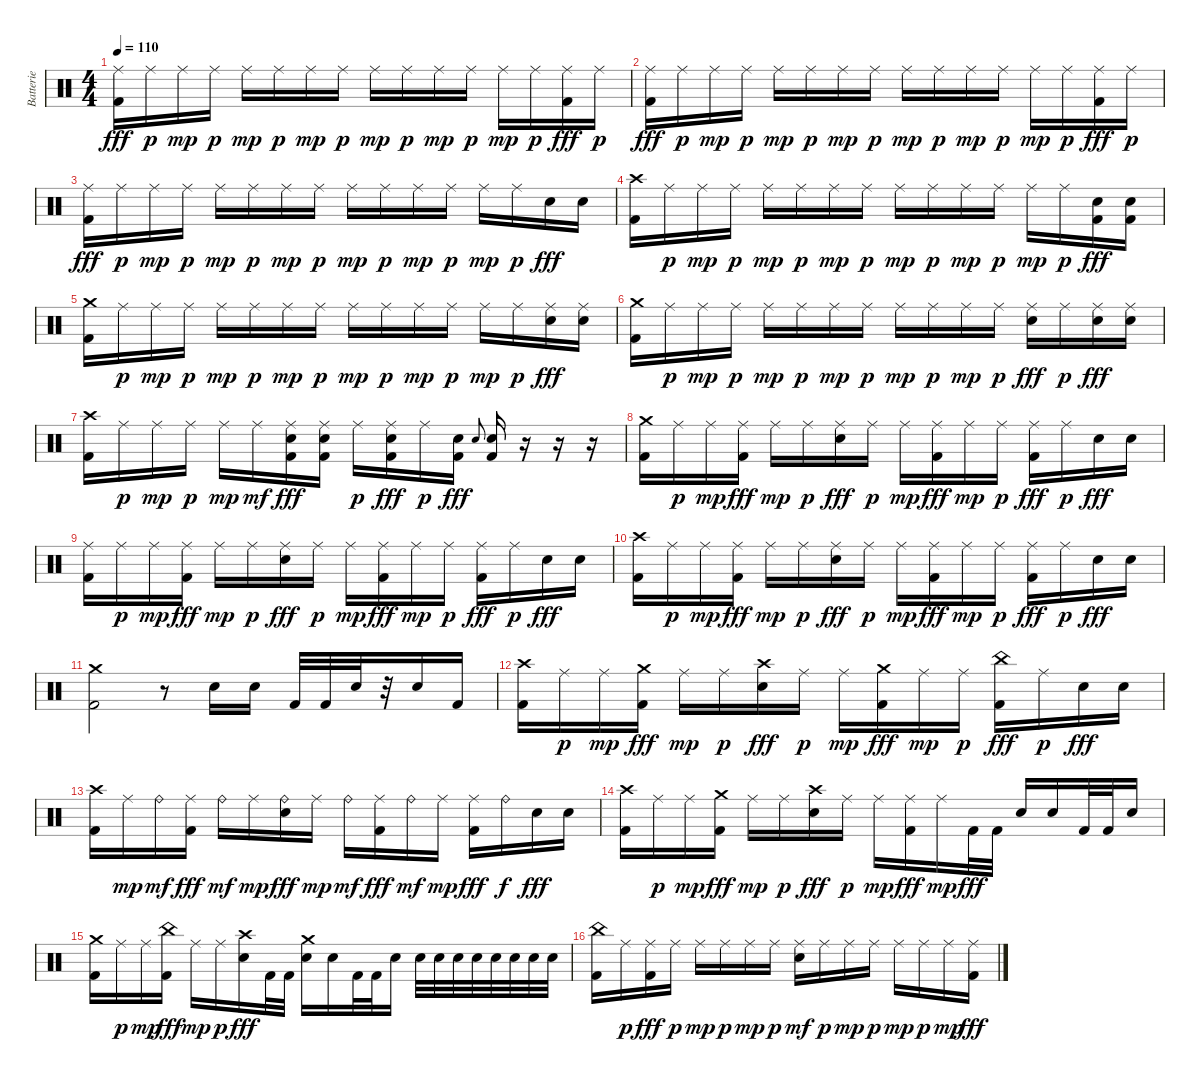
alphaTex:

\track ("Batterie" "Batterie") {instrument percussion}
\staff {score}
\articulation defaults
\ts (4 4)
\tempo 110
\clef neutral
\ks c
("Ride (middle)" "Kick (hit) 2").16{dy fff} "Ride (middle)".16{dy p} "Ride (middle)".16{dy mp} "Ride (middle)".16{dy p} "Ride (middle)".16{dy mp} "Ride (middle)".16{dy p} "Ride (middle)".16{dy mp} "Ride (middle)".16{dy p} "Ride (middle)".16{dy mp} "Ride (middle)".16{dy p} "Ride (middle)".16{dy mp} "Ride (middle)".16{dy p} "Ride (middle)".16{dy mp} "Ride (middle)".16{dy p} ("Ride (middle)" "Kick (hit) 2").16{dy fff} "Ride (middle)".16{dy p} |
("Ride (middle)" "Kick (hit) 2").16{dy fff} "Ride (middle)".16{dy p} "Ride (middle)".16{dy mp} "Ride (middle)".16{dy p} "Ride (middle)".16{dy mp} "Ride (middle)".16{dy p} "Ride (middle)".16{dy mp} "Ride (middle)".16{dy p} "Ride (middle)".16{dy mp} "Ride (middle)".16{dy p} "Ride (middle)".16{dy mp} "Ride (middle)".16{dy p} "Ride (middle)".16{dy mp} "Ride (middle)".16{dy p} ("Ride (middle)" "Kick (hit) 2").16{dy fff} "Ride (middle)".16{dy p} |
("Ride (middle)" "Kick (hit) 2").16{dy fff} "Ride (middle)".16{dy p} "Ride (middle)".16{dy mp} "Ride (middle)".16{dy p} "Ride (middle)".16{dy mp} "Ride (middle)".16{dy p} "Ride (middle)".16{dy mp} "Ride (middle)".16{dy p} "Ride (middle)".16{dy mp} "Ride (middle)".16{dy p} "Ride (middle)".16{dy mp} "Ride (middle)".16{dy p} "Ride (middle)".16{dy mp} "Ride (middle)".16{dy p} "Electric Snare (hit)".16{dy fff} "Electric Snare (hit)".16 |
("Crash high (hit)" "Kick (hit) 2").16 "Ride (middle)".16{dy p} "Ride (middle)".16{dy mp} "Ride (middle)".16{dy p} "Ride (middle)".16{dy mp} "Ride (middle)".16{dy p} "Ride (middle)".16{dy mp} "Ride (middle)".16{dy p} "Ride (middle)".16{dy mp} "Ride (middle)".16{dy p} "Ride (middle)".16{dy mp} "Ride (middle)".16{dy p} "Ride (middle)".16{dy mp} "Ride (middle)".16{dy p} ("Electric Snare (hit)" "Kick (hit) 2").16{dy fff} ("Electric Snare (hit)" "Kick (hit) 2").16 |
("Crash medium (hit)" "Kick (hit) 2").16 "Ride (middle)".16{dy p} "Ride (middle)".16{dy mp} "Ride (middle)".16{dy p} "Ride (middle)".16{dy mp} "Ride (middle)".16{dy p} "Ride (middle)".16{dy mp} "Ride (middle)".16{dy p} "Ride (middle)".16{dy mp} "Ride (middle)".16{dy p} "Ride (middle)".16{dy mp} "Ride (middle)".16{dy p} "Ride (middle)".16{dy mp} "Ride (middle)".16{dy p} ("Ride (middle)" "Electric Snare (hit)").16{dy fff} ("Ride (middle)" "Electric Snare (hit)").16 |
("Crash medium (hit)" "Kick (hit) 2").16 "Ride (middle)".16{dy p} "Ride (middle)".16{dy mp} "Ride (middle)".16{dy p} "Ride (middle)".16{dy mp} "Ride (middle)".16{dy p} "Ride (middle)".16{dy mp} "Ride (middle)".16{dy p} "Ride (middle)".16{dy mp} "Ride (middle)".16{dy p} "Ride (middle)".16{dy mp} "Ride (middle)".16{dy p} ("Ride (middle)" "Electric Snare (hit)").16{dy fff} "Ride (middle)".16{dy p} ("Ride (middle)" "Electric Snare (hit)").16{dy fff} ("Ride (middle)" "Electric Snare (hit)").16 |
("Crash high (hit)" "Kick (hit) 2").16 "Ride (middle)".16{dy p} "Ride (middle)".16{dy mp} "Ride (middle)".16{dy p} "Ride (middle)".16{dy mp} "Ride (middle)".16{dy mf} ("Ride (middle)" "Electric Snare (hit)" "Kick (hit) 2").16{dy fff} ("Ride (middle)" "Electric Snare (hit)" "Kick (hit) 2").16 "Ride (middle)".16{dy p} ("Ride (middle)" "Electric Snare (hit)" "Kick (hit) 2").16{dy fff} "Ride (middle)".16{dy p} ("Electric Snare (hit)" "Kick (hit) 2").16{dy fff} "Electric Snare (hit)".8{gr onbeat} ("Electric Snare (hit)" "Kick (hit) 2").16 r.16 r.16 r.16 |
("Crash medium (hit)" "Kick (hit) 2").16 "Ride (middle)".16{dy p} "Ride (middle)".16{dy mp} ("Ride (middle)" "Kick (hit) 2").16{dy fff} "Ride (middle)".16{dy mp} "Ride (middle)".16{dy p} ("Ride (middle)" "Electric Snare (hit)").16{dy fff} "Ride (middle)".16{dy p} "Ride (middle)".16{dy mp} ("Ride (middle)" "Kick (hit) 2").16{dy fff} "Ride (middle)".16{dy mp} "Ride (middle)".16{dy p} ("Ride (middle)" "Kick (hit) 2").16{dy fff} "Ride (middle)".16{dy p} "Electric Snare (hit)".16{dy fff} "Electric Snare (hit)".16 |
("Ride (middle)" "Kick (hit) 2").16 "Ride (middle)".16{dy p} "Ride (middle)".16{dy mp} ("Ride (middle)" "Kick (hit) 2").16{dy fff} "Ride (middle)".16{dy mp} "Ride (middle)".16{dy p} ("Ride (middle)" "Electric Snare (hit)").16{dy fff} "Ride (middle)".16{dy p} "Ride (middle)".16{dy mp} ("Ride (middle)" "Kick (hit) 2").16{dy fff} "Ride (middle)".16{dy mp} "Ride (middle)".16{dy p} ("Ride (middle)" "Kick (hit) 2").16{dy fff} "Ride (middle)".16{dy p} "Electric Snare (hit)".16{dy fff} "Electric Snare (hit)".16 |
("Crash high (hit)" "Kick (hit) 2").16 "Ride (middle)".16{dy p} "Ride (middle)".16{dy mp} ("Ride (middle)" "Kick (hit) 2").16{dy fff} "Ride (middle)".16{dy mp} "Ride (middle)".16{dy p} ("Ride (middle)" "Electric Snare (hit)").16{dy fff} "Ride (middle)".16{dy p} "Ride (middle)".16{dy mp} ("Ride (middle)" "Kick (hit) 2").16{dy fff} "Ride (middle)".16{dy mp} "Ride (middle)".16{dy p} ("Ride (middle)" "Kick (hit) 2").16{dy fff} "Ride (middle)".16{dy p} "Electric Snare (hit)".16{dy fff} "Electric Snare (hit)".16 |
("Crash medium (hit)" "Kick (hit) 2").2 r.8 "Electric Snare (hit)".16 "Electric Snare (hit)".16 "Kick (hit) 2".32 "Kick (hit) 2".32 "Electric Snare (hit)".32 r.32 "Electric Snare (hit)".16 "Kick (hit) 2".16 |
("Crash high (hit)" "Kick (hit) 2").16 "Ride (middle)".16{dy p} "Ride (middle)".16{dy mp} ("Crash medium (hit)" "Kick (hit) 2").16{dy fff} "Ride (middle)".16{dy mp} "Ride (middle)".16{dy p} ("Crash high (hit)" "Electric Snare (hit)").16{dy fff} "Ride (middle)".16{dy p} "Ride (middle)".16{dy mp} ("Crash medium (hit)" "Kick (hit) 2").16{dy fff} "Ride (middle)".16{dy mp} "Ride (middle)".16{dy p} ("China (hit)" "Kick (hit) 2").16{dy fff} "Ride (middle)".16{dy p} "Electric Snare (hit)".16{dy fff} "Electric Snare (hit)".16 |
("Crash high (hit)" "Kick (hit) 2").16 "Ride (middle)".16{dy mp} "Ride (bell)".16{dy mf} ("Ride (middle)" "Kick (hit) 2").16{dy fff} "Ride (bell)".16{dy mf} "Ride (middle)".16{dy mp} ("Ride (bell)" "Electric Snare (hit)").16{dy fff} "Ride (middle)".16{dy mp} "Ride (bell)".16{dy mf} ("Ride (middle)" "Kick (hit) 2").16{dy fff} "Ride (bell)".16{dy mf} "Ride (middle)".16{dy mp} ("Ride (middle)" "Kick (hit) 2").16{dy fff} "Ride (bell)".16{dy f} "Electric Snare (hit)".16{dy fff} "Electric Snare (hit)".16 |
("Crash high (hit)" "Kick (hit) 2").16 "Ride (middle)".16{dy p} "Ride (middle)".16{dy mp} ("Crash medium (hit)" "Kick (hit) 2").16{dy fff} "Ride (middle)".16{dy mp} "Ride (middle)".16{dy p} ("Crash high (hit)" "Electric Snare (hit)").16{dy fff} "Ride (middle)".16{dy p} "Ride (middle)".16{dy mp} ("Ride (middle)" "Kick (hit) 2").16{dy fff} "Ride (middle)".16{dy mp} "Kick (hit) 2".32{dy fff} "Kick (hit) 2".32 "Electric Snare (hit)".16 "Electric Snare (hit)".16 "Kick (hit) 2".32 "Kick (hit) 2".32 "Electric Snare (hit)".16 |
("Crash medium (hit)" "Kick (hit) 2").16 "Ride (middle)".16{dy p} "Ride (middle)".16{dy mp} ("China (hit)" "Kick (hit) 2").16{dy fff} "Ride (middle)".16{dy mp} "Ride (middle)".16{dy p} ("Crash high (hit)" "Electric Snare (hit)").16{dy fff} "Kick (hit) 2".32 "Kick (hit) 2".32 ("Crash medium (hit)" "Electric Snare (hit)").16 "Electric Snare (hit)".16 "Kick (hit) 2".32 "Kick (hit) 2".32 "Electric Snare (hit)".16 "Electric Snare (hit)".32 "Electric Snare (hit)".32 "Electric Snare (hit)".32 "Electric Snare (hit)".32 "Electric Snare (hit)".32 "Electric Snare (hit)".32 "Electric Snare (hit)".32 "Electric Snare (hit)".32 |
("China (hit)" "Kick (hit) 2").16 "Ride (middle)".16{dy p} ("Ride (middle)" "Kick (hit) 2").16{dy fff} "Ride (middle)".16{dy p} "Ride (middle)".16{dy mp} "Ride (middle)".16{dy p} "Ride (middle)".16{dy mp} "Ride (middle)".16{dy p} ("Ride (middle)" "Electric Snare (hit)").16{dy mf} "Ride (middle)".16{dy p} "Ride (middle)".16{dy mp} "Ride (middle)".16{dy p} "Ride (middle)".16{dy mp} "Ride (middle)".16{dy p} "Ride (middle)".16{dy mp} ("Ride (middle)" "Kick (hit) 2").16{dy fff}
